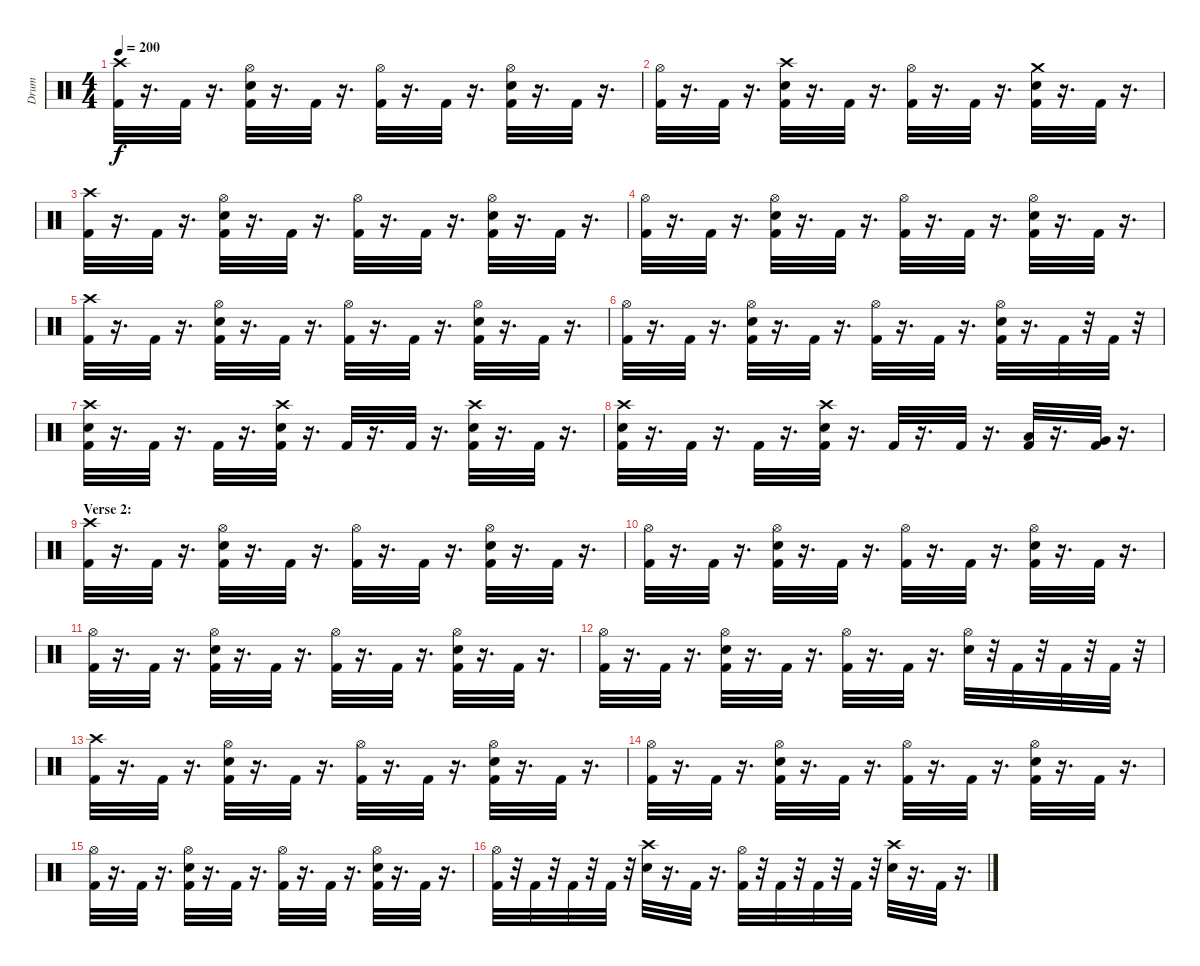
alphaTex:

\track ("Drum" "Drum") {instrument percussion}
\staff {score}
\articulation defaults
\ts (4 4)
\tempo 200
\clef neutral
\ks c
("Crash high (hit)" "Kick (hit) 2").32{dy f} r.16{d} "Kick (hit) 2".32 r.16{d} ("Kick (hit) 2" "Snare (hit) 2" "Hi-Hat (open)").32 r.16{d} "Kick (hit) 2".32 r.16{d} ("Kick (hit) 2" "Hi-Hat (open)").32 r.16{d} "Kick (hit) 2".32 r.16{d} ("Kick (hit) 2" "Snare (hit) 2" "Hi-Hat (open)").32 r.16{d} "Kick (hit) 2".32 r.16{d} |
("Kick (hit) 2" "Hi-Hat (open)").32 r.16{d} "Kick (hit) 2".32 r.16{d} ("Kick (hit) 2" "Crash high (hit)" "Snare (hit) 2").32 r.16{d} "Kick (hit) 2".32 r.16{d} ("Hi-Hat (open)" "Kick (hit) 2").32 r.16{d} "Kick (hit) 2".32 r.16{d} ("Crash medium (hit)" "Kick (hit) 2" "Snare (hit) 2").32 r.16{d} "Kick (hit) 2".32 r.16{d} |
("Kick (hit) 2" "Crash high (hit)").32 r.16{d} "Kick (hit) 2".32 r.16{d} ("Kick (hit) 2" "Snare (hit) 2" "Hi-Hat (open)").32 r.16{d} "Kick (hit) 2".32 r.16{d} ("Kick (hit) 2" "Hi-Hat (open)").32 r.16{d} "Kick (hit) 2".32 r.16{d} ("Kick (hit) 2" "Snare (hit) 2" "Hi-Hat (open)").32 r.16{d} "Kick (hit) 2".32 r.16{d} |
("Kick (hit) 2" "Hi-Hat (open)").32 r.16{d} "Kick (hit) 2".32 r.16{d} ("Kick (hit) 2" "Snare (hit) 2" "Hi-Hat (open)").32 r.16{d} "Kick (hit) 2".32 r.16{d} ("Kick (hit) 2" "Hi-Hat (open)").32 r.16{d} "Kick (hit) 2".32 r.16{d} ("Kick (hit) 2" "Snare (hit) 2" "Hi-Hat (open)").32 r.16{d} "Kick (hit) 2".32 r.16{d} |
("Crash high (hit)" "Kick (hit) 2").32 r.16{d} "Kick (hit) 2".32 r.16{d} ("Kick (hit) 2" "Snare (hit) 2" "Hi-Hat (open)").32 r.16{d} "Kick (hit) 2".32 r.16{d} ("Kick (hit) 2" "Hi-Hat (open)").32 r.16{d} "Kick (hit) 2".32 r.16{d} ("Kick (hit) 2" "Snare (hit) 2" "Hi-Hat (open)").32 r.16{d} "Kick (hit) 2".32 r.16{d} |
("Kick (hit) 2" "Hi-Hat (open)").32 r.16{d} "Kick (hit) 2".32 r.16{d} ("Kick (hit) 2" "Snare (hit) 2" "Hi-Hat (open)").32 r.16{d} "Kick (hit) 2".32 r.16{d} ("Kick (hit) 2" "Hi-Hat (open)").32 r.16{d} "Kick (hit) 2".32 r.16{d} ("Kick (hit) 2" "Snare (hit) 2" "Hi-Hat (open)").32 r.16{d} "Kick (hit) 2".32 r.32 "Kick (hit) 2".32 r.32 |
("Crash high (hit)" "Snare (hit) 2" "Kick (hit) 2").32 r.16{d} "Kick (hit) 2".32 r.16{d} "Kick (hit) 2".32 r.16{d} ("Snare (hit) 2" "Crash high (hit)" "Kick (hit) 2").32 r.16{d} "Kick (hit) 2".32 r.16{d} "Kick (hit) 2".32 r.16{d} ("Crash high (hit)" "Snare (hit) 2" "Kick (hit) 2").32 r.16{d} "Kick (hit) 2".32 r.16{d} |
("Crash high (hit)" "Snare (hit) 2" "Kick (hit) 2").32 r.16{d} "Kick (hit) 2".32 r.16{d} "Kick (hit) 2".32 r.16{d} ("Snare (hit) 2" "Crash high (hit)" "Kick (hit) 2").32 r.16{d} "Kick (hit) 2".32 r.16{d} "Kick (hit) 2".32 r.16{d} ("Low Tom (hit)" "Kick (hit) 2").32 r.16{d} ("Very Low Tom (hit)" "Kick (hit) 2").32 r.16{d} |
\section ("" "Verse 2:")
("Crash high (hit)" "Kick (hit) 2").32 r.16{d} "Kick (hit) 2".32 r.16{d} ("Hi-Hat (open)" "Kick (hit) 2" "Snare (hit) 2").32 r.16{d} "Kick (hit) 2".32 r.16{d} ("Hi-Hat (open)" "Kick (hit) 2").32 r.16{d} "Kick (hit) 2".32 r.16{d} ("Hi-Hat (open)" "Kick (hit) 2" "Snare (hit) 2").32 r.16{d} "Kick (hit) 2".32 r.16{d} |
("Kick (hit) 2" "Hi-Hat (open)").32 r.16{d} "Kick (hit) 2".32 r.16{d} ("Kick (hit) 2" "Hi-Hat (open)" "Snare (hit) 2").32 r.16{d} "Kick (hit) 2".32 r.16{d} ("Kick (hit) 2" "Hi-Hat (open)").32 r.16{d} "Kick (hit) 2".32 r.16{d} ("Kick (hit) 2" "Hi-Hat (open)" "Snare (hit) 2").32 r.16{d} "Kick (hit) 2".32 r.16{d} |
("Kick (hit) 2" "Hi-Hat (open)").32 r.16{d} "Kick (hit) 2".32 r.16{d} ("Kick (hit) 2" "Hi-Hat (open)" "Snare (hit) 2").32 r.16{d} "Kick (hit) 2".32 r.16{d} ("Kick (hit) 2" "Hi-Hat (open)").32 r.16{d} "Kick (hit) 2".32 r.16{d} ("Kick (hit) 2" "Hi-Hat (open)" "Snare (hit) 2").32 r.16{d} "Kick (hit) 2".32 r.16{d} |
("Kick (hit) 2" "Hi-Hat (open)").32 r.16{d} "Kick (hit) 2".32 r.16{d} ("Kick (hit) 2" "Hi-Hat (open)" "Snare (hit) 2").32 r.16{d} "Kick (hit) 2".32 r.16{d} ("Kick (hit) 2" "Hi-Hat (open)").32 r.16{d} "Kick (hit) 2".32 r.16{d} ("Hi-Hat (open)" "Snare (hit) 2").32 r.32 "Kick (hit) 2".32 r.32 "Kick (hit) 2".32 r.32 "Kick (hit) 2".32 r.32 |
("Kick (hit) 2" "Crash high (hit)").32 r.16{d} "Kick (hit) 2".32 r.16{d} ("Kick (hit) 2" "Hi-Hat (open)" "Snare (hit) 2").32 r.16{d} "Kick (hit) 2".32 r.16{d} ("Kick (hit) 2" "Hi-Hat (open)").32 r.16{d} "Kick (hit) 2".32 r.16{d} ("Kick (hit) 2" "Hi-Hat (open)" "Snare (hit) 2").32 r.16{d} "Kick (hit) 2".32 r.16{d} |
("Kick (hit) 2" "Hi-Hat (open)").32 r.16{d} "Kick (hit) 2".32 r.16{d} ("Kick (hit) 2" "Hi-Hat (open)" "Snare (hit) 2").32 r.16{d} "Kick (hit) 2".32 r.16{d} ("Kick (hit) 2" "Hi-Hat (open)").32 r.16{d} "Kick (hit) 2".32 r.16{d} ("Kick (hit) 2" "Hi-Hat (open)" "Snare (hit) 2").32 r.16{d} "Kick (hit) 2".32 r.16{d} |
("Kick (hit) 2" "Hi-Hat (open)").32 r.16{d} "Kick (hit) 2".32 r.16{d} ("Kick (hit) 2" "Hi-Hat (open)" "Snare (hit) 2").32 r.16{d} "Kick (hit) 2".32 r.16{d} ("Kick (hit) 2" "Hi-Hat (open)").32 r.16{d} "Kick (hit) 2".32 r.16{d} ("Kick (hit) 2" "Hi-Hat (open)" "Snare (hit) 2").32 r.16{d} "Kick (hit) 2".32 r.16{d} |
("Kick (hit) 2" "Hi-Hat (open)").32 r.32 "Kick (hit) 2".32 r.32 "Kick (hit) 2".32 r.32 "Kick (hit) 2".32 r.32 ("Crash high (hit)" "Snare (hit) 2").32 r.16{d} "Kick (hit) 2".32 r.16{d} ("Kick (hit) 2" "Hi-Hat (open)").32 r.32 "Kick (hit) 2".32 r.32 "Kick (hit) 2".32 r.32 "Kick (hit) 2".32 r.32 ("Crash high (hit)" "Snare (hit) 2").32 r.16{d} "Kick (hit) 2".32 r.16{d}
